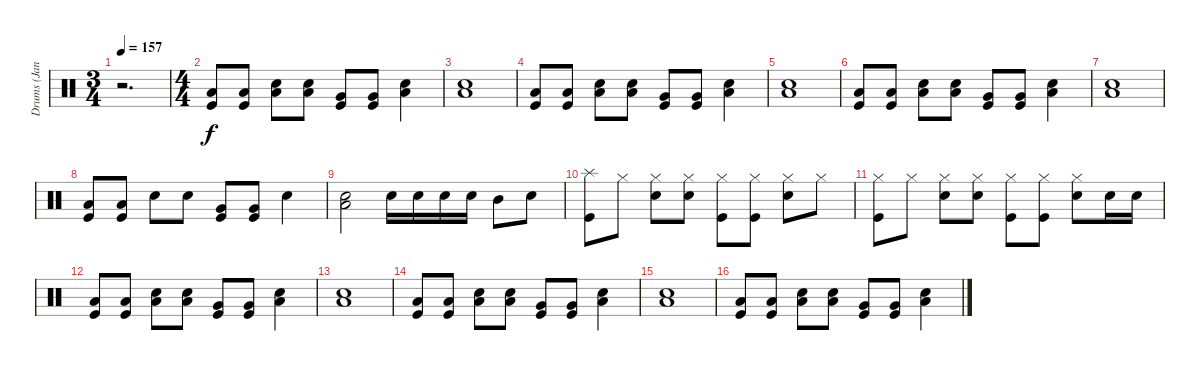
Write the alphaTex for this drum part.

\track ("Drums (Janet)" "Drums (Jan") {instrument percussion}
\staff {score}
\articulation defaults
\ts (3 4)
\tempo 157
\clef neutral
\ks c
r.2{d dy f} |
\ts (4 4)
("Low Tom (hit)" "Kick (hit)").8 ("Low Tom (hit)" "Kick (hit)").8 ("Low Tom (hit)" "Snare (hit) 2").8 ("Low Tom (hit)" "Snare (hit) 2").8 ("Very Low Tom (hit)" "Kick (hit)").8 ("Very Low Tom (hit)" "Kick (hit)").8 ("Low Tom (hit)" "Snare (hit) 2").4 |
("Low Tom (hit)" "Snare (hit) 2").1 |
("Low Tom (hit)" "Kick (hit)").8 ("Low Tom (hit)" "Kick (hit)").8 ("Low Tom (hit)" "Snare (hit) 2").8 ("Low Tom (hit)" "Snare (hit) 2").8 ("Very Low Tom (hit)" "Kick (hit)").8 ("Very Low Tom (hit)" "Kick (hit)").8 ("Low Tom (hit)" "Snare (hit) 2").4 |
("Low Tom (hit)" "Snare (hit) 2").1 |
("Low Tom (hit)" "Kick (hit)").8 ("Low Tom (hit)" "Kick (hit)").8 ("Low Tom (hit)" "Snare (hit) 2").8 ("Low Tom (hit)" "Snare (hit) 2").8 ("Very Low Tom (hit)" "Kick (hit)").8 ("Very Low Tom (hit)" "Kick (hit)").8 ("Low Tom (hit)" "Snare (hit) 2").4 |
("Low Tom (hit)" "Snare (hit) 2").1 |
("Low Tom (hit)" "Kick (hit)").8 ("Low Tom (hit)" "Kick (hit)").8 "Snare (hit) 2".8 "Snare (hit) 2".8 ("Very Low Tom (hit)" "Kick (hit)").8 ("Very Low Tom (hit)" "Kick (hit)").8 "Snare (hit) 2".4 |
("Low Tom (hit)" "Snare (hit) 2").2 "Snare (hit) 2".16 "Snare (hit) 2".16 "Snare (hit) 2".16 "Snare (hit) 2".16 "Mid Tom (hit)".8 "Snare (hit) 2".8 |
("Splash (hit)" "Kick (hit)").8 "Hi-Hat (closed)".8 ("Hi-Hat (closed)" "Snare (hit) 2").8 ("Hi-Hat (closed)" "Snare (hit) 2").8 ("Hi-Hat (closed)" "Kick (hit)").8 ("Hi-Hat (closed)" "Kick (hit)").8 ("Hi-Hat (closed)" "Snare (hit) 2").8 "Hi-Hat (closed)".8 |
("Hi-Hat (closed)" "Kick (hit)").8 "Hi-Hat (closed)".8 ("Hi-Hat (closed)" "Snare (hit) 2").8 ("Hi-Hat (closed)" "Snare (hit) 2").8 ("Hi-Hat (closed)" "Kick (hit)").8 ("Hi-Hat (closed)" "Kick (hit)").8 ("Hi-Hat (closed)" "Snare (hit) 2").8 "Snare (hit) 2".16 "Snare (hit) 2".16 |
("Low Tom (hit)" "Kick (hit)").8 ("Low Tom (hit)" "Kick (hit)").8 ("Low Tom (hit)" "Snare (hit) 2").8 ("Low Tom (hit)" "Snare (hit) 2").8 ("Very Low Tom (hit)" "Kick (hit)").8 ("Very Low Tom (hit)" "Kick (hit)").8 ("Low Tom (hit)" "Snare (hit) 2").4 |
("Low Tom (hit)" "Snare (hit) 2").1 |
("Low Tom (hit)" "Kick (hit)").8 ("Low Tom (hit)" "Kick (hit)").8 ("Low Tom (hit)" "Snare (hit) 2").8 ("Low Tom (hit)" "Snare (hit) 2").8 ("Very Low Tom (hit)" "Kick (hit)").8 ("Very Low Tom (hit)" "Kick (hit)").8 ("Low Tom (hit)" "Snare (hit) 2").4 |
("Low Tom (hit)" "Snare (hit) 2").1 |
("Low Tom (hit)" "Kick (hit)").8 ("Low Tom (hit)" "Kick (hit)").8 ("Low Tom (hit)" "Snare (hit) 2").8 ("Low Tom (hit)" "Snare (hit) 2").8 ("Very Low Tom (hit)" "Kick (hit)").8 ("Very Low Tom (hit)" "Kick (hit)").8 ("Low Tom (hit)" "Snare (hit) 2").4
